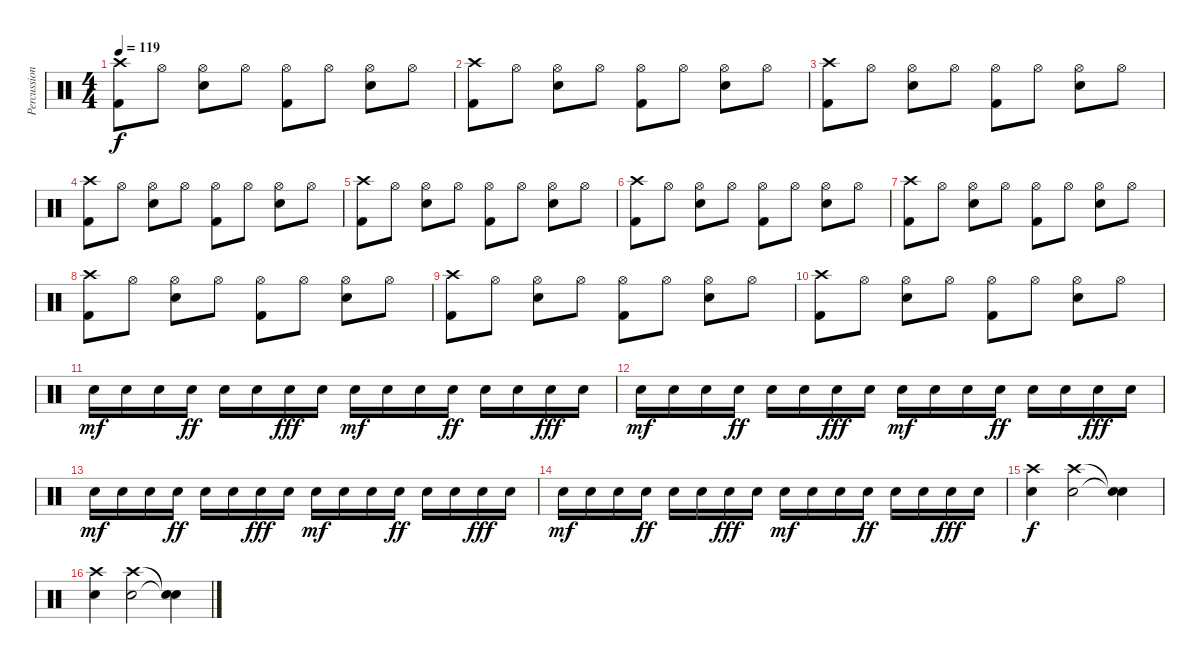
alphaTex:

\track ("Percussion" "Percussion") {instrument percussion}
\staff {score}
\articulation defaults
\ts (4 4)
\tempo 119
\clef neutral
\ks c
("Crash high (hit)" "Kick (hit) 2").8{dy f} "Hi-Hat (open)".8 ("Hi-Hat (open)" "Electric Snare (hit)").8 "Hi-Hat (open)".8 ("Hi-Hat (open)" "Kick (hit) 2").8 "Hi-Hat (open)".8 ("Hi-Hat (open)" "Electric Snare (hit)").8 "Hi-Hat (open)".8 |
("Crash high (hit)" "Kick (hit) 2").8 "Hi-Hat (open)".8 ("Hi-Hat (open)" "Electric Snare (hit)").8 "Hi-Hat (open)".8 ("Hi-Hat (open)" "Kick (hit) 2").8 "Hi-Hat (open)".8 ("Hi-Hat (open)" "Electric Snare (hit)").8 "Hi-Hat (open)".8 |
("Crash high (hit)" "Kick (hit) 2").8 "Hi-Hat (open)".8 ("Hi-Hat (open)" "Electric Snare (hit)").8 "Hi-Hat (open)".8 ("Hi-Hat (open)" "Kick (hit) 2").8 "Hi-Hat (open)".8 ("Hi-Hat (open)" "Electric Snare (hit)").8 "Hi-Hat (open)".8 |
("Crash high (hit)" "Kick (hit) 2").8 "Hi-Hat (open)".8 ("Hi-Hat (open)" "Electric Snare (hit)").8 "Hi-Hat (open)".8 ("Hi-Hat (open)" "Kick (hit) 2").8 "Hi-Hat (open)".8 ("Hi-Hat (open)" "Electric Snare (hit)").8 "Hi-Hat (open)".8 |
("Crash high (hit)" "Kick (hit) 2").8 "Hi-Hat (open)".8 ("Hi-Hat (open)" "Electric Snare (hit)").8 "Hi-Hat (open)".8 ("Hi-Hat (open)" "Kick (hit) 2").8 "Hi-Hat (open)".8 ("Hi-Hat (open)" "Electric Snare (hit)").8 "Hi-Hat (open)".8 |
("Crash high (hit)" "Kick (hit) 2").8 "Hi-Hat (open)".8 ("Hi-Hat (open)" "Electric Snare (hit)").8 "Hi-Hat (open)".8 ("Hi-Hat (open)" "Kick (hit) 2").8 "Hi-Hat (open)".8 ("Hi-Hat (open)" "Electric Snare (hit)").8 "Hi-Hat (open)".8 |
("Crash high (hit)" "Kick (hit) 2").8 "Hi-Hat (open)".8 ("Hi-Hat (open)" "Electric Snare (hit)").8 "Hi-Hat (open)".8 ("Hi-Hat (open)" "Kick (hit) 2").8 "Hi-Hat (open)".8 ("Hi-Hat (open)" "Electric Snare (hit)").8 "Hi-Hat (open)".8 |
("Crash high (hit)" "Kick (hit) 2").8 "Hi-Hat (open)".8 ("Hi-Hat (open)" "Electric Snare (hit)").8 "Hi-Hat (open)".8 ("Hi-Hat (open)" "Kick (hit) 2").8 "Hi-Hat (open)".8 ("Hi-Hat (open)" "Electric Snare (hit)").8 "Hi-Hat (open)".8 |
("Crash high (hit)" "Kick (hit) 2").8 "Hi-Hat (open)".8 ("Hi-Hat (open)" "Electric Snare (hit)").8 "Hi-Hat (open)".8 ("Hi-Hat (open)" "Kick (hit) 2").8 "Hi-Hat (open)".8 ("Hi-Hat (open)" "Electric Snare (hit)").8 "Hi-Hat (open)".8 |
("Crash high (hit)" "Kick (hit) 2").8 "Hi-Hat (open)".8 ("Hi-Hat (open)" "Electric Snare (hit)").8 "Hi-Hat (open)".8 ("Hi-Hat (open)" "Kick (hit) 2").8 "Hi-Hat (open)".8 ("Hi-Hat (open)" "Electric Snare (hit)").8 "Hi-Hat (open)".8 |
"Snare (hit) 2".16{dy mf} "Snare (hit) 2".16 "Snare (hit) 2".16 "Snare (hit) 2".16{dy ff} "Snare (hit) 2".16 "Snare (hit) 2".16 "Snare (hit) 2".16{dy fff} "Snare (hit) 2".16 "Snare (hit) 2".16{dy mf} "Snare (hit) 2".16 "Snare (hit) 2".16 "Snare (hit) 2".16{dy ff} "Snare (hit) 2".16 "Snare (hit) 2".16 "Snare (hit) 2".16{dy fff} "Snare (hit) 2".16 |
"Snare (hit) 2".16{dy mf} "Snare (hit) 2".16 "Snare (hit) 2".16 "Snare (hit) 2".16{dy ff} "Snare (hit) 2".16 "Snare (hit) 2".16 "Snare (hit) 2".16{dy fff} "Snare (hit) 2".16 "Snare (hit) 2".16{dy mf} "Snare (hit) 2".16 "Snare (hit) 2".16 "Snare (hit) 2".16{dy ff} "Snare (hit) 2".16 "Snare (hit) 2".16 "Snare (hit) 2".16{dy fff} "Snare (hit) 2".16 |
"Snare (hit) 2".16{dy mf} "Snare (hit) 2".16 "Snare (hit) 2".16 "Snare (hit) 2".16{dy ff} "Snare (hit) 2".16 "Snare (hit) 2".16 "Snare (hit) 2".16{dy fff} "Snare (hit) 2".16 "Snare (hit) 2".16{dy mf} "Snare (hit) 2".16 "Snare (hit) 2".16 "Snare (hit) 2".16{dy ff} "Snare (hit) 2".16 "Snare (hit) 2".16 "Snare (hit) 2".16{dy fff} "Snare (hit) 2".16 |
"Snare (hit) 2".16{dy mf} "Snare (hit) 2".16 "Snare (hit) 2".16 "Snare (hit) 2".16{dy ff} "Snare (hit) 2".16 "Snare (hit) 2".16 "Snare (hit) 2".16{dy fff} "Snare (hit) 2".16 "Snare (hit) 2".16{dy mf} "Snare (hit) 2".16 "Snare (hit) 2".16 "Snare (hit) 2".16{dy ff} "Snare (hit) 2".16 "Snare (hit) 2".16 "Snare (hit) 2".16{dy fff} "Snare (hit) 2".16 |
("Snare (hit) 2" "Crash high (hit)").4{dy f} ("Snare (hit) 2" "Crash high (hit)").2 ("Snare (hit)"{t} "Snare (hit)"{t}).4 |
("Snare (hit) 2" "Crash high (hit)").4 ("Snare (hit) 2" "Crash high (hit)").2 ("Snare (hit)"{t} "Snare (hit)"{t}).4
